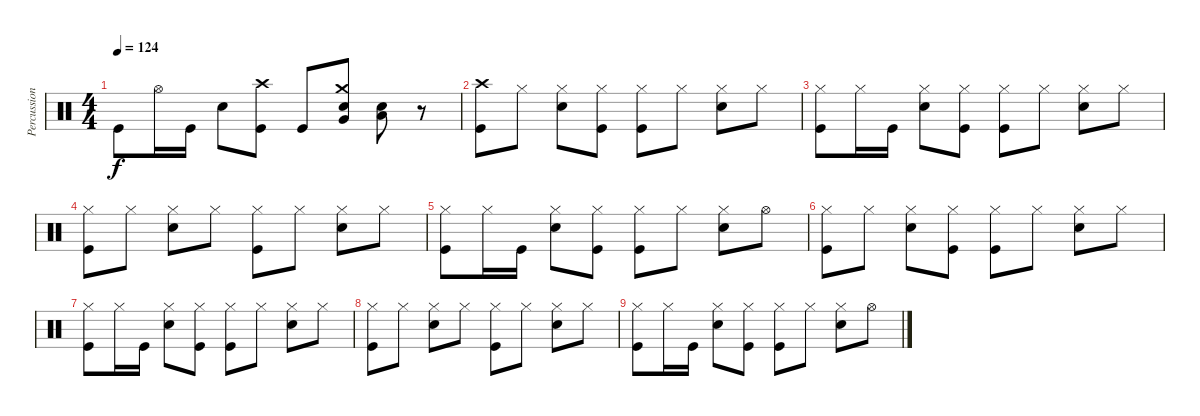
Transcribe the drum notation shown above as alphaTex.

\track ("Percussion" "Percussion") {instrument percussion}
\staff {score}
\articulation defaults
\ts (4 4)
\tempo 124
\clef neutral
\ks c "Kick (hit)".8{dy f} "Hi-Hat (open)".16 "Kick (hit)".16 "Snare (hit) 2".8
("Crash high (hit)" "Kick (hit)").8 "Kick (hit)".8 ("Crash medium (hit)" "Very Low Tom (hit)" "Snare (hit) 2").8 ("Low Floor Tom (hit)" "Snare (hit) 2").8 r.8 |
("Crash high (hit)" "Kick (hit)").8 "Hi-Hat (closed)".8 ("Hi-Hat (closed)" "Snare (hit) 2").8 ("Hi-Hat (closed)" "Kick (hit)").8 ("Hi-Hat (closed)" "Kick (hit)").8 "Hi-Hat (closed)".8 ("Hi-Hat (closed)" "Snare (hit) 2").8 "Hi-Hat (closed)".8 |
("Hi-Hat (closed)" "Kick (hit)").8 "Hi-Hat (closed)".16 "Kick (hit)".16 ("Hi-Hat (closed)" "Snare (hit) 2").8 ("Hi-Hat (closed)" "Kick (hit)").8 ("Hi-Hat (closed)" "Kick (hit)").8 "Hi-Hat (closed)".8 ("Hi-Hat (closed)" "Snare (hit) 2").8 "Hi-Hat (closed)".8 |
("Hi-Hat (closed)" "Kick (hit)").8 "Hi-Hat (closed)".8 ("Hi-Hat (closed)" "Snare (hit) 2").8 "Hi-Hat (closed)".8 ("Hi-Hat (closed)" "Kick (hit)").8 "Hi-Hat (closed)".8 ("Hi-Hat (closed)" "Snare (hit) 2").8 "Hi-Hat (closed)".8 |
("Hi-Hat (closed)" "Kick (hit)").8 "Hi-Hat (closed)".16 "Kick (hit)".16 ("Hi-Hat (closed)" "Snare (hit) 2").8 ("Hi-Hat (closed)" "Kick (hit)").8 ("Hi-Hat (closed)" "Kick (hit)").8 "Hi-Hat (closed)".8 ("Hi-Hat (closed)" "Snare (hit) 2").8 "Hi-Hat (open)".8 |
("Hi-Hat (closed)" "Kick (hit)").8 "Hi-Hat (closed)".8 ("Hi-Hat (closed)" "Snare (hit) 2").8 ("Hi-Hat (closed)" "Kick (hit)").8 ("Hi-Hat (closed)" "Kick (hit)").8 "Hi-Hat (closed)".8 ("Hi-Hat (closed)" "Snare (hit) 2").8 "Hi-Hat (closed)".8 |
("Hi-Hat (closed)" "Kick (hit)").8 "Hi-Hat (closed)".16 "Kick (hit)".16 ("Hi-Hat (closed)" "Snare (hit) 2").8 ("Hi-Hat (closed)" "Kick (hit)").8 ("Hi-Hat (closed)" "Kick (hit)").8 "Hi-Hat (closed)".8 ("Hi-Hat (closed)" "Snare (hit) 2").8 "Hi-Hat (closed)".8 |
("Hi-Hat (closed)" "Kick (hit)").8 "Hi-Hat (closed)".8 ("Hi-Hat (closed)" "Snare (hit) 2").8 "Hi-Hat (closed)".8 ("Hi-Hat (closed)" "Kick (hit)").8 "Hi-Hat (closed)".8 ("Hi-Hat (closed)" "Snare (hit) 2").8 "Hi-Hat (closed)".8 |
("Hi-Hat (closed)" "Kick (hit)").8 "Hi-Hat (closed)".16 "Kick (hit)".16 ("Hi-Hat (closed)" "Snare (hit) 2").8 ("Hi-Hat (closed)" "Kick (hit)").8 ("Hi-Hat (closed)" "Kick (hit)").8 "Hi-Hat (closed)".8 ("Hi-Hat (closed)" "Snare (hit) 2").8 "Hi-Hat (open)".8
